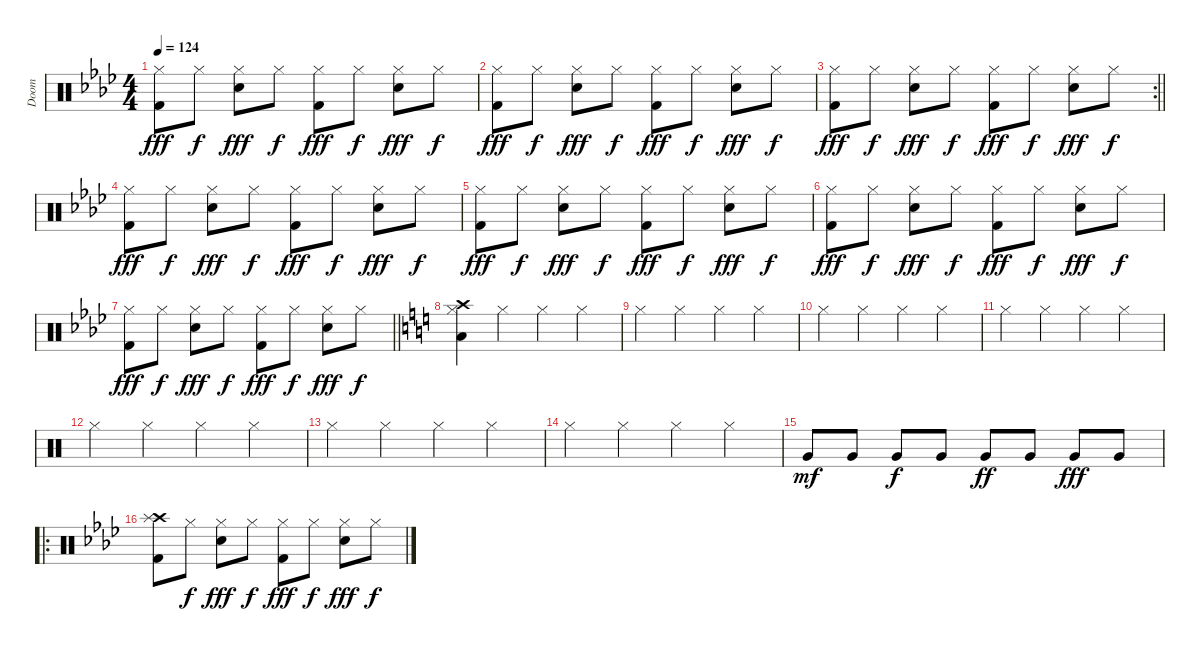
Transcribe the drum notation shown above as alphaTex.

\track ("Doom" "Doom") {instrument percussion}
\staff {score}
\articulation defaults
\ts (4 4)
\tempo 124
\clef neutral
\ks ab
("Hi-Hat (closed)" "Kick (hit) 2").8{dy fff} "Hi-Hat (closed)".8{dy f} ("Hi-Hat (closed)" "Snare (hit) 2").8{dy fff} "Hi-Hat (closed)".8{dy f} ("Hi-Hat (closed)" "Kick (hit) 2").8{dy fff} "Hi-Hat (closed)".8{dy f} ("Hi-Hat (closed)" "Snare (hit) 2").8{dy fff} "Hi-Hat (closed)".8{dy f} |
("Hi-Hat (closed)" "Kick (hit) 2").8{dy fff} "Hi-Hat (closed)".8{dy f} ("Hi-Hat (closed)" "Snare (hit) 2").8{dy fff} "Hi-Hat (closed)".8{dy f} ("Hi-Hat (closed)" "Kick (hit) 2").8{dy fff} "Hi-Hat (closed)".8{dy f} ("Hi-Hat (closed)" "Snare (hit) 2").8{dy fff} "Hi-Hat (closed)".8{dy f} |
\rc 2
\barLineRight lightlight
("Hi-Hat (closed)" "Kick (hit) 2").8{dy fff} "Hi-Hat (closed)".8{dy f} ("Hi-Hat (closed)" "Snare (hit) 2").8{dy fff} "Hi-Hat (closed)".8{dy f} ("Hi-Hat (closed)" "Kick (hit) 2").8{dy fff} "Hi-Hat (closed)".8{dy f} ("Hi-Hat (closed)" "Snare (hit) 2").8{dy fff} "Hi-Hat (closed)".8{dy f} |
("Hi-Hat (closed)" "Kick (hit) 2").8{dy fff} "Hi-Hat (closed)".8{dy f} ("Hi-Hat (closed)" "Snare (hit) 2").8{dy fff} "Hi-Hat (closed)".8{dy f} ("Hi-Hat (closed)" "Kick (hit) 2").8{dy fff} "Hi-Hat (closed)".8{dy f} ("Hi-Hat (closed)" "Snare (hit) 2").8{dy fff} "Hi-Hat (closed)".8{dy f} |
("Hi-Hat (closed)" "Kick (hit) 2").8{dy fff} "Hi-Hat (closed)".8{dy f} ("Hi-Hat (closed)" "Snare (hit) 2").8{dy fff} "Hi-Hat (closed)".8{dy f} ("Hi-Hat (closed)" "Kick (hit) 2").8{dy fff} "Hi-Hat (closed)".8{dy f} ("Hi-Hat (closed)" "Snare (hit) 2").8{dy fff} "Hi-Hat (closed)".8{dy f} |
("Hi-Hat (closed)" "Kick (hit) 2").8{dy fff} "Hi-Hat (closed)".8{dy f} ("Hi-Hat (closed)" "Snare (hit) 2").8{dy fff} "Hi-Hat (closed)".8{dy f} ("Hi-Hat (closed)" "Kick (hit) 2").8{dy fff} "Hi-Hat (closed)".8{dy f} ("Hi-Hat (closed)" "Snare (hit) 2").8{dy fff} "Hi-Hat (closed)".8{dy f} |
\barLineRight lightlight
("Hi-Hat (closed)" "Kick (hit) 2").8{dy fff} "Hi-Hat (closed)".8{dy f} ("Hi-Hat (closed)" "Snare (hit) 2").8{dy fff} "Hi-Hat (closed)".8{dy f} ("Hi-Hat (closed)" "Kick (hit) 2").8{dy fff} "Hi-Hat (closed)".8{dy f} ("Hi-Hat (closed)" "Snare (hit) 2").8{dy fff} "Hi-Hat (closed)".8{dy f} |
\ks c
("Crash high (hit)" "Hi-Hat (closed)" "Low Tom (hit)").4 "Hi-Hat (closed)".4 "Hi-Hat (closed)".4 "Hi-Hat (closed)".4 |
"Hi-Hat (closed)".4 "Hi-Hat (closed)".4 "Hi-Hat (closed)".4 "Hi-Hat (closed)".4 |
"Hi-Hat (closed)".4 "Hi-Hat (closed)".4 "Hi-Hat (closed)".4 "Hi-Hat (closed)".4 |
"Hi-Hat (closed)".4 "Hi-Hat (closed)".4 "Hi-Hat (closed)".4 "Hi-Hat (closed)".4 |
"Hi-Hat (closed)".4 "Hi-Hat (closed)".4 "Hi-Hat (closed)".4 "Hi-Hat (closed)".4 |
"Hi-Hat (closed)".4 "Hi-Hat (closed)".4 "Hi-Hat (closed)".4 "Hi-Hat (closed)".4 |
"Hi-Hat (closed)".4 "Hi-Hat (closed)".4 "Hi-Hat (closed)".4 "Hi-Hat (closed)".4 |
"Very Low Tom (hit)".8{dy mf} "Very Low Tom (hit)".8 "Very Low Tom (hit)".8{dy f} "Very Low Tom (hit)".8 "Very Low Tom (hit)".8{dy ff} "Very Low Tom (hit)".8 "Very Low Tom (hit)".8{dy fff} "Very Low Tom (hit)".8 |
\ro
\ks ab
("Crash high (hit)" "Splash (hit)" "Kick (hit) 2").8 "Hi-Hat (closed)".8{dy f} ("Hi-Hat (closed)" "Snare (hit) 2").8{dy fff} "Hi-Hat (closed)".8{dy f} ("Hi-Hat (closed)" "Kick (hit) 2").8{dy fff} "Hi-Hat (closed)".8{dy f} ("Hi-Hat (closed)" "Snare (hit) 2").8{dy fff} "Hi-Hat (closed)".8{dy f}
